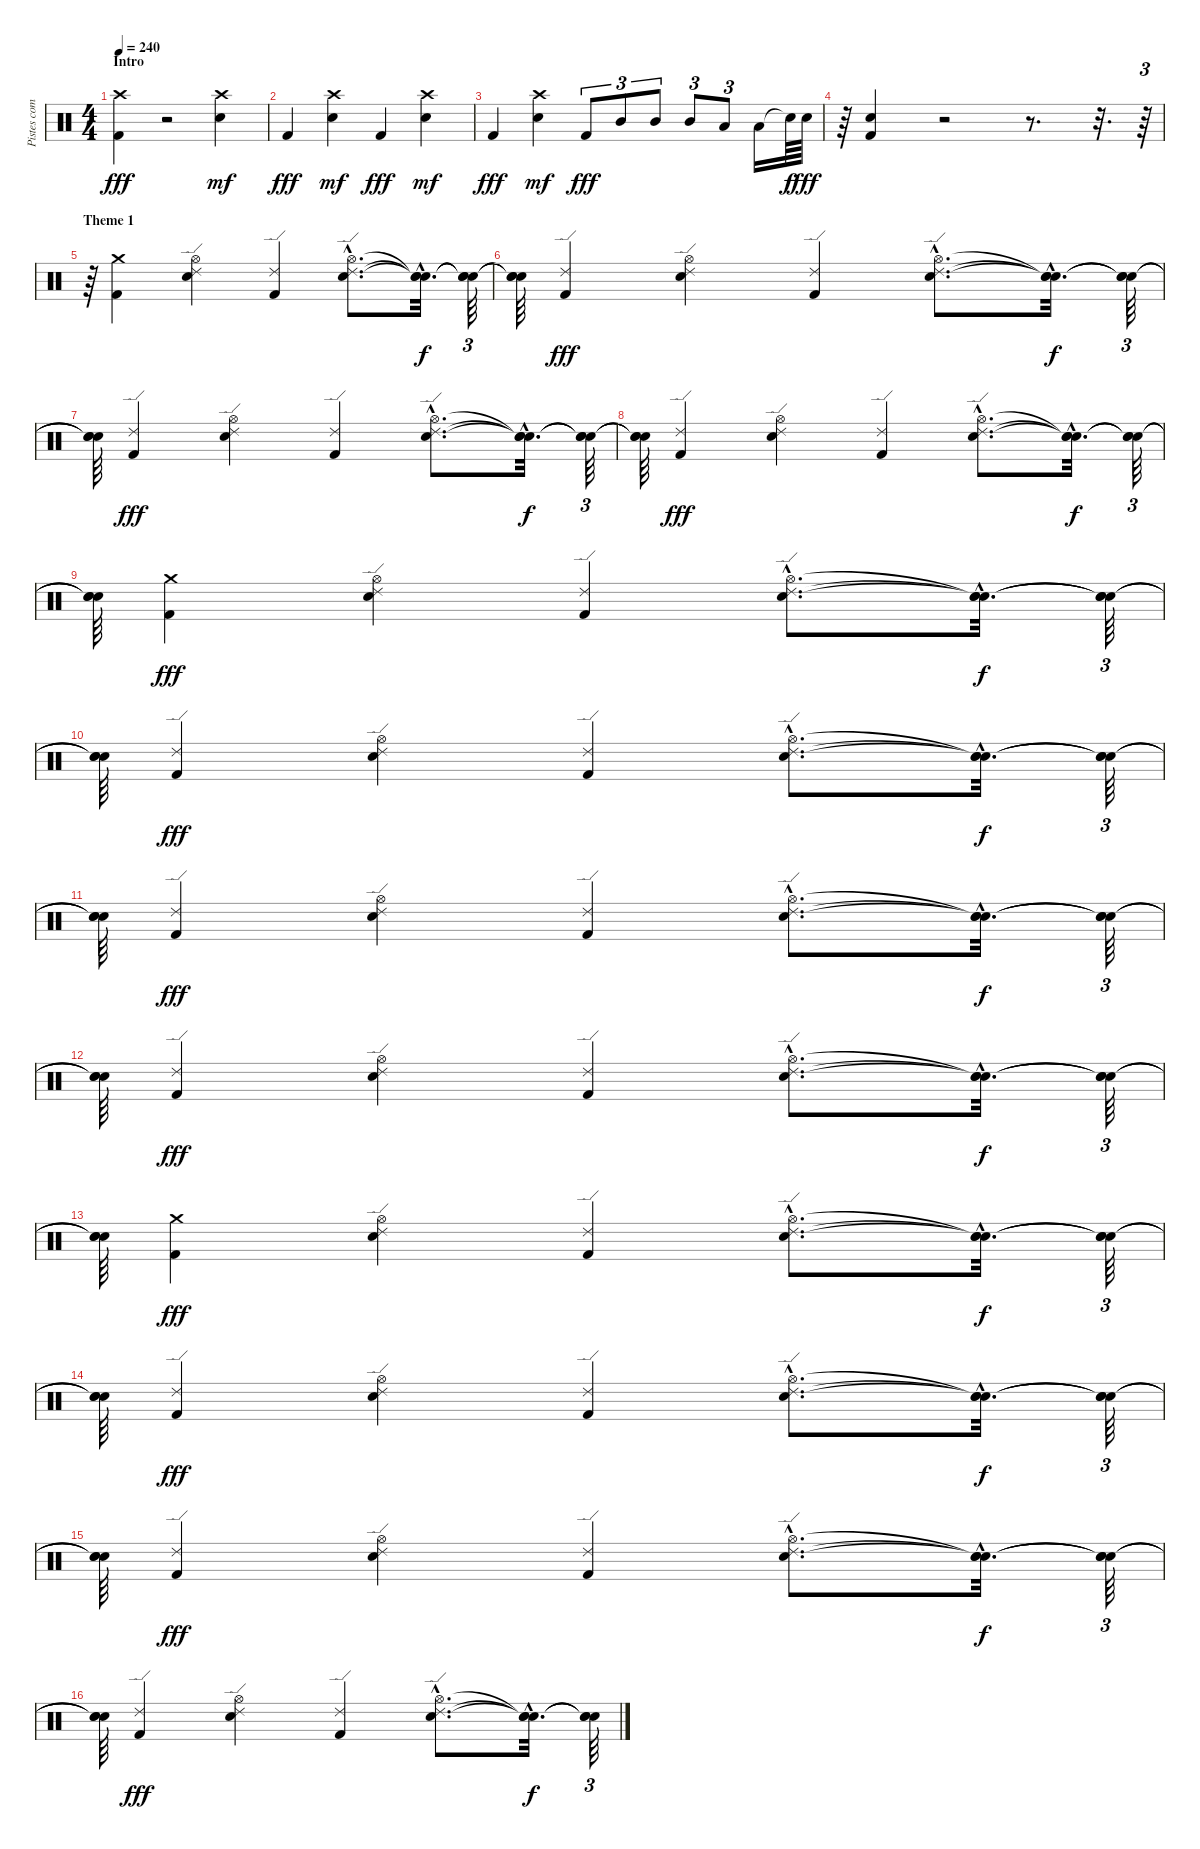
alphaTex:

\track ("Pistes combinées" "Pistes com") {instrument percussion}
\staff {score}
\articulation defaults
\ts (4 4)
\section ("" "Intro")
\tempo 240
\clef neutral
\ks c
("Kick (hit) 2" "Crash high (hit)").4{dy fff} r.2 ("Electric Snare (hit)" "Crash high (hit)").4{dy mf} |
"Kick (hit) 2".4{dy fff} ("Electric Snare (hit)" "Crash high (hit)").4{dy mf} "Kick (hit) 2".4{dy fff} ("Electric Snare (hit)" "Crash high (hit)").4{dy mf} |
"Kick (hit) 2".4{dy fff} ("Electric Snare (hit)" "Crash high (hit)").4{dy mf} "Kick (hit) 2".8{tu (3 2) dy fff} "Mid Tom (hit)".8{tu (3 2)} "Mid Tom (hit)".8{tu (3 2)} "Mid Tom (hit)".8{tu (3 2)} "Low Tom (hit)".8{tu (3 2)} "Low Tom (hit)".16 "Snare (hit)"{t}.64{dy f} "Electric Snare (hit)".64{dy fff} |
r.64 ("Kick (hit) 2" "Electric Snare (hit)").4 r.2 r.8{d} r.32{d} r.64{tu (3 2)} |
\section ("" "Theme 1")
r.64 ("Kick (hit) 2" "Crash medium (hit)").4 ("Electric Snare (hit)" "Ride (edge) 2" "Hi-Hat (open)").4 ("Kick (hit) 2" "Ride (edge) 2").4 ("Electric Snare (hit)"{hac} "Ride (edge) 2"{hac} "Hi-Hat (open)"{hac}).8{d} ("Snare (hit)"{hac t} "Snare (hit)"{hac t} "Snare (hit)"{hac t}).32{d dy f} ("Snare (hit)"{t} "Snare (hit)"{t} "Snare (hit)"{t}).64{tu (3 2)} |
("Snare (hit)"{t} "Snare (hit)"{t} "Snare (hit)"{t}).64 ("Kick (hit) 2" "Ride (edge) 2").4{dy fff} ("Electric Snare (hit)" "Ride (edge) 2" "Hi-Hat (open)").4 ("Kick (hit) 2" "Ride (edge) 2").4 ("Electric Snare (hit)"{hac} "Ride (edge) 2"{hac} "Hi-Hat (open)"{hac}).8{d} ("Snare (hit)"{hac t} "Snare (hit)"{hac t} "Snare (hit)"{hac t}).32{d dy f} ("Snare (hit)"{t} "Snare (hit)"{t} "Snare (hit)"{t}).64{tu (3 2)} |
("Snare (hit)"{t} "Snare (hit)"{t} "Snare (hit)"{t}).64 ("Kick (hit) 2" "Ride (edge) 2").4{dy fff} ("Electric Snare (hit)" "Ride (edge) 2" "Hi-Hat (open)").4 ("Kick (hit) 2" "Ride (edge) 2").4 ("Electric Snare (hit)"{hac} "Ride (edge) 2"{hac} "Hi-Hat (open)"{hac}).8{d} ("Snare (hit)"{hac t} "Snare (hit)"{hac t} "Snare (hit)"{hac t}).32{d dy f} ("Snare (hit)"{t} "Snare (hit)"{t} "Snare (hit)"{t}).64{tu (3 2)} |
("Snare (hit)"{t} "Snare (hit)"{t} "Snare (hit)"{t}).64 ("Kick (hit) 2" "Ride (edge) 2").4{dy fff} ("Electric Snare (hit)" "Ride (edge) 2" "Hi-Hat (open)").4 ("Kick (hit) 2" "Ride (edge) 2").4 ("Electric Snare (hit)"{hac} "Ride (edge) 2"{hac} "Hi-Hat (open)"{hac}).8{d} ("Snare (hit)"{hac t} "Snare (hit)"{hac t} "Snare (hit)"{hac t}).32{d dy f} ("Snare (hit)"{t} "Snare (hit)"{t} "Snare (hit)"{t}).64{tu (3 2)} |
("Snare (hit)"{t} "Snare (hit)"{t} "Snare (hit)"{t}).64 ("Kick (hit) 2" "Crash medium (hit)").4{dy fff} ("Electric Snare (hit)" "Ride (edge) 2" "Hi-Hat (open)").4 ("Kick (hit) 2" "Ride (edge) 2").4 ("Electric Snare (hit)"{hac} "Ride (edge) 2"{hac} "Hi-Hat (open)"{hac}).8{d} ("Snare (hit)"{hac t} "Snare (hit)"{hac t} "Snare (hit)"{hac t}).32{d dy f} ("Snare (hit)"{t} "Snare (hit)"{t} "Snare (hit)"{t}).64{tu (3 2)} |
("Snare (hit)"{t} "Snare (hit)"{t} "Snare (hit)"{t}).64 ("Kick (hit) 2" "Ride (edge) 2").4{dy fff} ("Electric Snare (hit)" "Ride (edge) 2" "Hi-Hat (open)").4 ("Kick (hit) 2" "Ride (edge) 2").4 ("Electric Snare (hit)"{hac} "Ride (edge) 2"{hac} "Hi-Hat (open)"{hac}).8{d} ("Snare (hit)"{hac t} "Snare (hit)"{hac t} "Snare (hit)"{hac t}).32{d dy f} ("Snare (hit)"{t} "Snare (hit)"{t} "Snare (hit)"{t}).64{tu (3 2)} |
("Snare (hit)"{t} "Snare (hit)"{t} "Snare (hit)"{t}).64 ("Kick (hit) 2" "Ride (edge) 2").4{dy fff} ("Electric Snare (hit)" "Ride (edge) 2" "Hi-Hat (open)").4 ("Kick (hit) 2" "Ride (edge) 2").4 ("Electric Snare (hit)"{hac} "Ride (edge) 2"{hac} "Hi-Hat (open)"{hac}).8{d} ("Snare (hit)"{hac t} "Snare (hit)"{hac t} "Snare (hit)"{hac t}).32{d dy f} ("Snare (hit)"{t} "Snare (hit)"{t} "Snare (hit)"{t}).64{tu (3 2)} |
("Snare (hit)"{t} "Snare (hit)"{t} "Snare (hit)"{t}).64 ("Kick (hit) 2" "Ride (edge) 2").4{dy fff} ("Electric Snare (hit)" "Ride (edge) 2" "Hi-Hat (open)").4 ("Kick (hit) 2" "Ride (edge) 2").4 ("Electric Snare (hit)"{hac} "Ride (edge) 2"{hac} "Hi-Hat (open)"{hac}).8{d} ("Snare (hit)"{hac t} "Snare (hit)"{hac t} "Snare (hit)"{hac t}).32{d dy f} ("Snare (hit)"{t} "Snare (hit)"{t} "Snare (hit)"{t}).64{tu (3 2)} |
("Snare (hit)"{t} "Snare (hit)"{t} "Snare (hit)"{t}).64 ("Kick (hit) 2" "Crash medium (hit)").4{dy fff} ("Electric Snare (hit)" "Ride (edge) 2" "Hi-Hat (open)").4 ("Kick (hit) 2" "Ride (edge) 2").4 ("Electric Snare (hit)"{hac} "Ride (edge) 2"{hac} "Hi-Hat (open)"{hac}).8{d} ("Snare (hit)"{hac t} "Snare (hit)"{hac t} "Snare (hit)"{hac t}).32{d dy f} ("Snare (hit)"{t} "Snare (hit)"{t} "Snare (hit)"{t}).64{tu (3 2)} |
("Snare (hit)"{t} "Snare (hit)"{t} "Snare (hit)"{t}).64 ("Kick (hit) 2" "Ride (edge) 2").4{dy fff} ("Electric Snare (hit)" "Ride (edge) 2" "Hi-Hat (open)").4 ("Kick (hit) 2" "Ride (edge) 2").4 ("Electric Snare (hit)"{hac} "Ride (edge) 2"{hac} "Hi-Hat (open)"{hac}).8{d} ("Snare (hit)"{hac t} "Snare (hit)"{hac t} "Snare (hit)"{hac t}).32{d dy f} ("Snare (hit)"{t} "Snare (hit)"{t} "Snare (hit)"{t}).64{tu (3 2)} |
("Snare (hit)"{t} "Snare (hit)"{t} "Snare (hit)"{t}).64 ("Kick (hit) 2" "Ride (edge) 2").4{dy fff} ("Electric Snare (hit)" "Ride (edge) 2" "Hi-Hat (open)").4 ("Kick (hit) 2" "Ride (edge) 2").4 ("Electric Snare (hit)"{hac} "Ride (edge) 2"{hac} "Hi-Hat (open)"{hac}).8{d} ("Snare (hit)"{hac t} "Snare (hit)"{hac t} "Snare (hit)"{hac t}).32{d dy f} ("Snare (hit)"{t} "Snare (hit)"{t} "Snare (hit)"{t}).64{tu (3 2)} |
("Snare (hit)"{t} "Snare (hit)"{t} "Snare (hit)"{t}).64 ("Kick (hit) 2" "Ride (edge) 2").4{dy fff} ("Electric Snare (hit)" "Ride (edge) 2" "Hi-Hat (open)").4 ("Kick (hit) 2" "Ride (edge) 2").4 ("Electric Snare (hit)"{hac} "Ride (edge) 2"{hac} "Hi-Hat (open)"{hac}).8{d} ("Snare (hit)"{hac t} "Snare (hit)"{hac t} "Snare (hit)"{hac t}).32{d dy f} ("Snare (hit)"{t} "Snare (hit)"{t} "Snare (hit)"{t}).64{tu (3 2)}
